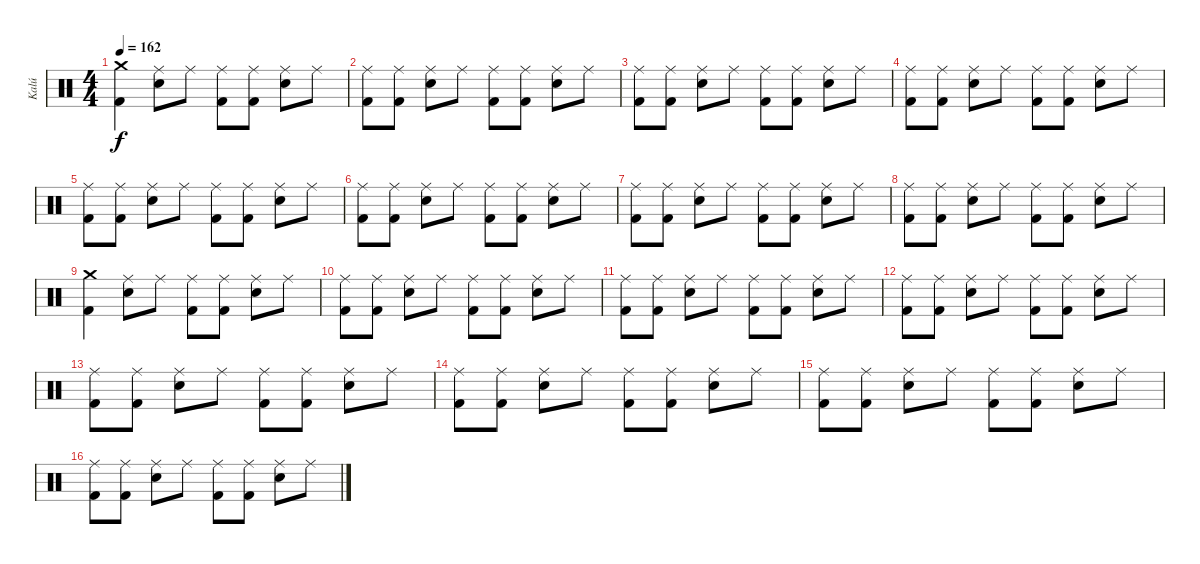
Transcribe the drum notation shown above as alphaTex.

\track ("Kalú" "Kalú") {instrument percussion}
\staff {score}
\articulation defaults
\ts (4 4)
\tempo 162
\clef neutral
\ks c
("Crash medium (hit)" "Kick (hit) 2").4{dy f} ("Ride (middle)" "Electric Snare (hit)").8 "Ride (middle)".8 ("Ride (middle)" "Kick (hit) 2").8 ("Ride (middle)" "Kick (hit) 2").8 ("Ride (middle)" "Electric Snare (hit)").8 "Ride (middle)".8 |
("Ride (middle)" "Kick (hit) 2").8 ("Ride (middle)" "Kick (hit) 2").8 ("Ride (middle)" "Electric Snare (hit)").8 "Ride (middle)".8 ("Ride (middle)" "Kick (hit) 2").8 ("Ride (middle)" "Kick (hit) 2").8 ("Ride (middle)" "Electric Snare (hit)").8 "Ride (middle)".8 |
("Ride (middle)" "Kick (hit) 2").8 ("Ride (middle)" "Kick (hit) 2").8 ("Ride (middle)" "Electric Snare (hit)").8 "Ride (middle)".8 ("Ride (middle)" "Kick (hit) 2").8 ("Ride (middle)" "Kick (hit) 2").8 ("Ride (middle)" "Electric Snare (hit)").8 "Ride (middle)".8 |
("Ride (middle)" "Kick (hit) 2").8 ("Ride (middle)" "Kick (hit) 2").8 ("Ride (middle)" "Electric Snare (hit)").8 "Ride (middle)".8 ("Ride (middle)" "Kick (hit) 2").8 ("Ride (middle)" "Kick (hit) 2").8 ("Ride (middle)" "Electric Snare (hit)").8 "Ride (middle)".8 |
("Ride (middle)" "Kick (hit) 2").8 ("Ride (middle)" "Kick (hit) 2").8 ("Ride (middle)" "Electric Snare (hit)").8 "Ride (middle)".8 ("Ride (middle)" "Kick (hit) 2").8 ("Ride (middle)" "Kick (hit) 2").8 ("Ride (middle)" "Electric Snare (hit)").8 "Ride (middle)".8 |
("Ride (middle)" "Kick (hit) 2").8 ("Ride (middle)" "Kick (hit) 2").8 ("Ride (middle)" "Electric Snare (hit)").8 "Ride (middle)".8 ("Ride (middle)" "Kick (hit) 2").8 ("Ride (middle)" "Kick (hit) 2").8 ("Ride (middle)" "Electric Snare (hit)").8 "Ride (middle)".8 |
("Ride (middle)" "Kick (hit) 2").8 ("Ride (middle)" "Kick (hit) 2").8 ("Ride (middle)" "Electric Snare (hit)").8 "Ride (middle)".8 ("Ride (middle)" "Kick (hit) 2").8 ("Ride (middle)" "Kick (hit) 2").8 ("Ride (middle)" "Electric Snare (hit)").8 "Ride (middle)".8 |
("Ride (middle)" "Kick (hit) 2").8 ("Ride (middle)" "Kick (hit) 2").8 ("Ride (middle)" "Electric Snare (hit)").8 "Ride (middle)".8 ("Ride (middle)" "Kick (hit) 2").8 ("Ride (middle)" "Kick (hit) 2").8 ("Ride (middle)" "Electric Snare (hit)").8 "Ride (middle)".8 |
("Crash medium (hit)" "Kick (hit) 2").4 ("Ride (middle)" "Electric Snare (hit)").8 "Ride (middle)".8 ("Ride (middle)" "Kick (hit) 2").8 ("Ride (middle)" "Kick (hit) 2").8 ("Ride (middle)" "Electric Snare (hit)").8 "Ride (middle)".8 |
("Ride (middle)" "Kick (hit) 2").8 ("Ride (middle)" "Kick (hit) 2").8 ("Ride (middle)" "Electric Snare (hit)").8 "Ride (middle)".8 ("Ride (middle)" "Kick (hit) 2").8 ("Ride (middle)" "Kick (hit) 2").8 ("Ride (middle)" "Electric Snare (hit)").8 "Ride (middle)".8 |
("Ride (middle)" "Kick (hit) 2").8 ("Ride (middle)" "Kick (hit) 2").8 ("Ride (middle)" "Electric Snare (hit)").8 "Ride (middle)".8 ("Ride (middle)" "Kick (hit) 2").8 ("Ride (middle)" "Kick (hit) 2").8 ("Ride (middle)" "Electric Snare (hit)").8 "Ride (middle)".8 |
("Ride (middle)" "Kick (hit) 2").8 ("Ride (middle)" "Kick (hit) 2").8 ("Ride (middle)" "Electric Snare (hit)").8 "Ride (middle)".8 ("Ride (middle)" "Kick (hit) 2").8 ("Ride (middle)" "Kick (hit) 2").8 ("Ride (middle)" "Electric Snare (hit)").8 "Ride (middle)".8 |
("Ride (middle)" "Kick (hit) 2").8 ("Ride (middle)" "Kick (hit) 2").8 ("Ride (middle)" "Electric Snare (hit)").8 "Ride (middle)".8 ("Ride (middle)" "Kick (hit) 2").8 ("Ride (middle)" "Kick (hit) 2").8 ("Ride (middle)" "Electric Snare (hit)").8 "Ride (middle)".8 |
("Ride (middle)" "Kick (hit) 2").8 ("Ride (middle)" "Kick (hit) 2").8 ("Ride (middle)" "Electric Snare (hit)").8 "Ride (middle)".8 ("Ride (middle)" "Kick (hit) 2").8 ("Ride (middle)" "Kick (hit) 2").8 ("Ride (middle)" "Electric Snare (hit)").8 "Ride (middle)".8 |
("Ride (middle)" "Kick (hit) 2").8 ("Ride (middle)" "Kick (hit) 2").8 ("Ride (middle)" "Electric Snare (hit)").8 "Ride (middle)".8 ("Ride (middle)" "Kick (hit) 2").8 ("Ride (middle)" "Kick (hit) 2").8 ("Ride (middle)" "Electric Snare (hit)").8 "Ride (middle)".8 |
("Ride (middle)" "Kick (hit) 2").8 ("Ride (middle)" "Kick (hit) 2").8 ("Ride (middle)" "Electric Snare (hit)").8 "Ride (middle)".8 ("Ride (middle)" "Kick (hit) 2").8 ("Ride (middle)" "Kick (hit) 2").8 ("Ride (middle)" "Electric Snare (hit)").8 "Ride (middle)".8
